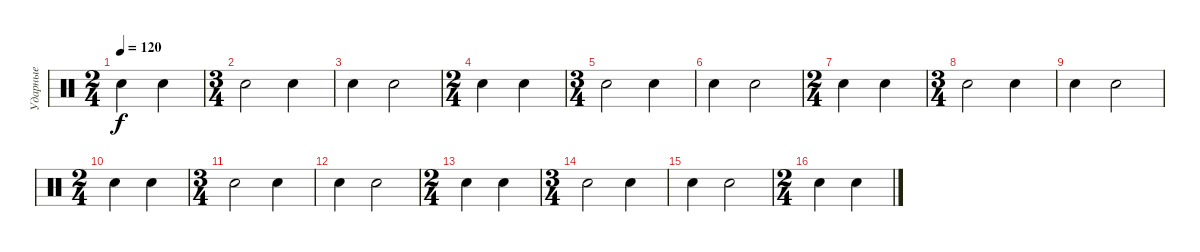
\track ("Ударные" "Ударные") {instrument percussion}
\staff {score}
\articulation defaults
\ts (2 4)
\tempo 120
\clef neutral
\ks c "Electric Snare (hit)".4{dy f} "Electric Snare (hit)".4
|
\ts (3 4)
"Electric Snare (hit)".2 "Electric Snare (hit)".4 |
"Electric Snare (hit)".4 "Electric Snare (hit)".2 |
\ts (2 4)
"Electric Snare (hit)".4 "Electric Snare (hit)".4 |
\ts (3 4)
"Electric Snare (hit)".2 "Electric Snare (hit)".4 |
"Electric Snare (hit)".4 "Electric Snare (hit)".2 |
\ts (2 4)
"Electric Snare (hit)".4 "Electric Snare (hit)".4 |
\ts (3 4)
"Electric Snare (hit)".2 "Electric Snare (hit)".4 |
"Electric Snare (hit)".4 "Electric Snare (hit)".2 |
\ts (2 4)
"Electric Snare (hit)".4 "Electric Snare (hit)".4 |
\ts (3 4)
"Electric Snare (hit)".2 "Electric Snare (hit)".4 |
"Electric Snare (hit)".4 "Electric Snare (hit)".2 |
\ts (2 4)
"Electric Snare (hit)".4 "Electric Snare (hit)".4 |
\ts (3 4)
"Electric Snare (hit)".2 "Electric Snare (hit)".4 |
"Electric Snare (hit)".4 "Electric Snare (hit)".2 |
\ts (2 4)
"Electric Snare (hit)".4 "Electric Snare (hit)".4
